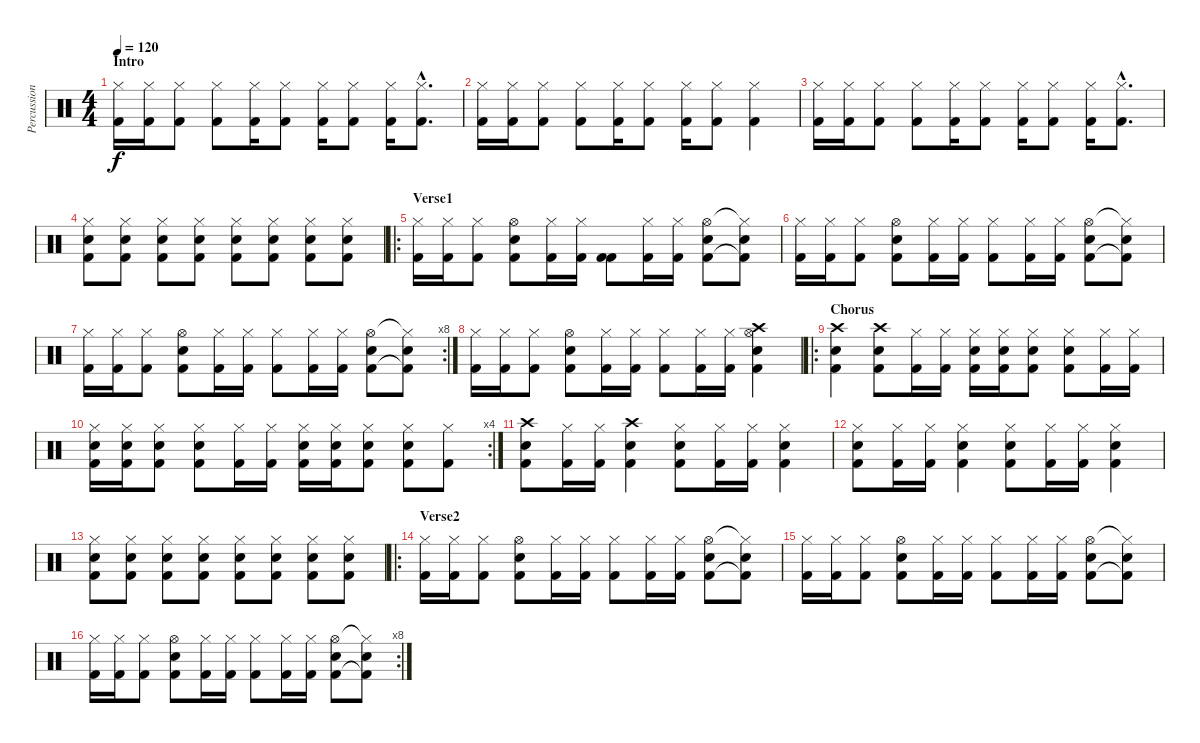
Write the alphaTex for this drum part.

\track ("Percussion" "Percussion") {instrument percussion}
\staff {score}
\articulation defaults
\ts (4 4)
\section ("" "Intro")
\tempo 120
\clef neutral
\ks c
("Hi-Hat (closed)" "Kick (hit) 2").16{dy f} ("Hi-Hat (closed)" "Kick (hit) 2").16 ("Hi-Hat (closed)" "Kick (hit) 2").8 ("Hi-Hat (closed)" "Kick (hit) 2").8 ("Hi-Hat (closed)" "Kick (hit) 2").16 ("Hi-Hat (closed)" "Kick (hit) 2").8 ("Hi-Hat (closed)" "Kick (hit) 2").16 ("Hi-Hat (closed)" "Kick (hit) 2").8 ("Hi-Hat (closed)" "Kick (hit) 2").16 ("Hi-Hat (closed)"{hac} "Kick (hit) 2"{hac}).8{d} |
("Hi-Hat (closed)" "Kick (hit) 2").16 ("Hi-Hat (closed)" "Kick (hit) 2").16 ("Hi-Hat (closed)" "Kick (hit) 2").8 ("Hi-Hat (closed)" "Kick (hit) 2").8 ("Hi-Hat (closed)" "Kick (hit) 2").16 ("Hi-Hat (closed)" "Kick (hit) 2").8 ("Hi-Hat (closed)" "Kick (hit) 2").16 ("Hi-Hat (closed)" "Kick (hit) 2").8 ("Hi-Hat (closed)" "Kick (hit) 2").4 |
("Hi-Hat (closed)" "Kick (hit) 2").16 ("Hi-Hat (closed)" "Kick (hit) 2").16 ("Hi-Hat (closed)" "Kick (hit) 2").8 ("Hi-Hat (closed)" "Kick (hit) 2").8 ("Hi-Hat (closed)" "Kick (hit) 2").16 ("Hi-Hat (closed)" "Kick (hit) 2").8 ("Hi-Hat (closed)" "Kick (hit) 2").16 ("Hi-Hat (closed)" "Kick (hit) 2").8 ("Hi-Hat (closed)" "Kick (hit) 2").16 ("Hi-Hat (closed)"{hac} "Kick (hit) 2"{hac}).8{d} |
("Hi-Hat (closed)" "Electric Snare (hit)" "Kick (hit) 2").8 ("Hi-Hat (closed)" "Electric Snare (hit)" "Kick (hit) 2").8 ("Hi-Hat (closed)" "Electric Snare (hit)" "Kick (hit) 2").8 ("Hi-Hat (closed)" "Electric Snare (hit)" "Kick (hit) 2").8 ("Hi-Hat (closed)" "Electric Snare (hit)" "Kick (hit) 2").8 ("Hi-Hat (closed)" "Electric Snare (hit)" "Kick (hit) 2").8 ("Hi-Hat (closed)" "Electric Snare (hit)" "Kick (hit) 2").8 ("Hi-Hat (closed)" "Electric Snare (hit)" "Kick (hit) 2").8 |
\ro
\section ("" "Verse1")
("Hi-Hat (closed)" "Kick (hit) 2").16 ("Hi-Hat (closed)" "Kick (hit) 2").16 ("Hi-Hat (closed)" "Kick (hit) 2").8 ("Hi-Hat (open)" "Kick (hit) 2" "Electric Snare (hit)").8 ("Hi-Hat (closed)" "Kick (hit) 2").16 ("Hi-Hat (closed)" "Kick (hit) 2").16 ("Kick (hit) 2" "Kick (hit) 2").8 ("Hi-Hat (closed)" "Kick (hit) 2").16 ("Hi-Hat (closed)" "Kick (hit) 2").16 ("Hi-Hat (open)" "Kick (hit) 2" "Electric Snare (hit)").8 ("Hi-Hat (closed)"{t} "Kick (hit) 2"{t} "Electric Snare (hit)").8 |
("Hi-Hat (closed)" "Kick (hit) 2").16 ("Hi-Hat (closed)" "Kick (hit) 2").16 ("Hi-Hat (closed)" "Kick (hit) 2").8 ("Hi-Hat (open)" "Kick (hit) 2" "Electric Snare (hit)").8 ("Hi-Hat (closed)" "Kick (hit) 2").16 ("Hi-Hat (closed)" "Kick (hit) 2").16 ("Hi-Hat (closed)" "Kick (hit) 2").8 ("Hi-Hat (closed)" "Kick (hit) 2").16 ("Hi-Hat (closed)" "Kick (hit) 2").16 ("Hi-Hat (open)" "Kick (hit) 2" "Electric Snare (hit)").8 ("Hi-Hat (closed)"{t} "Kick (hit) 2"{t} "Electric Snare (hit)").8 |
\rc 8
("Hi-Hat (closed)" "Kick (hit) 2").16 ("Hi-Hat (closed)" "Kick (hit) 2").16 ("Hi-Hat (closed)" "Kick (hit) 2").8 ("Hi-Hat (open)" "Kick (hit) 2" "Electric Snare (hit)").8 ("Hi-Hat (closed)" "Kick (hit) 2").16 ("Hi-Hat (closed)" "Kick (hit) 2").16 ("Hi-Hat (closed)" "Kick (hit) 2").8 ("Hi-Hat (closed)" "Kick (hit) 2").16 ("Hi-Hat (closed)" "Kick (hit) 2").16 ("Hi-Hat (open)" "Kick (hit) 2" "Electric Snare (hit)").8 ("Hi-Hat (closed)"{t} "Kick (hit) 2"{t} "Electric Snare (hit)").8 |
("Hi-Hat (closed)" "Kick (hit) 2").16 ("Hi-Hat (closed)" "Kick (hit) 2").16 ("Hi-Hat (closed)" "Kick (hit) 2").8 ("Hi-Hat (open)" "Kick (hit) 2" "Electric Snare (hit)").8 ("Hi-Hat (closed)" "Kick (hit) 2").16 ("Hi-Hat (closed)" "Kick (hit) 2").16 ("Hi-Hat (closed)" "Kick (hit) 2").8 ("Hi-Hat (closed)" "Kick (hit) 2").16 ("Hi-Hat (closed)" "Kick (hit) 2").16 ("Hi-Hat (open)" "Kick (hit) 2" "Electric Snare (hit)" "Crash high (hit)").4 |
\ro
\section ("" "Chorus")
("Crash high (hit)" "Electric Snare (hit)" "Kick (hit) 2").4 ("Crash high (hit)" "Electric Snare (hit)" "Kick (hit) 2").8 ("Hi-Hat (closed)" "Kick (hit) 2").16 ("Hi-Hat (closed)" "Kick (hit) 2").16 ("Hi-Hat (closed)" "Kick (hit) 2" "Electric Snare (hit)").16 ("Hi-Hat (closed)" "Kick (hit) 2" "Electric Snare (hit)").16 ("Hi-Hat (closed)" "Kick (hit) 2" "Electric Snare (hit)").8 ("Hi-Hat (closed)" "Kick (hit) 2" "Electric Snare (hit)").8 ("Hi-Hat (closed)" "Kick (hit) 2").16 ("Hi-Hat (closed)" "Kick (hit) 2").16 |
\rc 4
("Hi-Hat (closed)" "Kick (hit) 2" "Electric Snare (hit)").16 ("Hi-Hat (closed)" "Kick (hit) 2" "Electric Snare (hit)").16 ("Hi-Hat (closed)" "Kick (hit) 2" "Electric Snare (hit)").8 ("Hi-Hat (closed)" "Kick (hit) 2" "Electric Snare (hit)").8 ("Hi-Hat (closed)" "Kick (hit) 2").16 ("Hi-Hat (closed)" "Kick (hit) 2").16 ("Hi-Hat (closed)" "Kick (hit) 2" "Electric Snare (hit)").16 ("Hi-Hat (closed)" "Kick (hit) 2" "Electric Snare (hit)").16 ("Hi-Hat (closed)" "Kick (hit) 2" "Electric Snare (hit)").8 ("Hi-Hat (closed)" "Kick (hit) 2" "Electric Snare (hit)").8 ("Hi-Hat (closed)" "Kick (hit) 2").8 |
("Crash high (hit)" "Electric Snare (hit)" "Kick (hit) 2").8 ("Kick (hit) 2" "Hi-Hat (closed)").16 ("Kick (hit) 2" "Hi-Hat (closed)").16 ("Crash high (hit)" "Electric Snare (hit)" "Kick (hit) 2").4 ("Hi-Hat (closed)" "Kick (hit) 2" "Electric Snare (hit)").8 ("Hi-Hat (closed)" "Kick (hit) 2").16 ("Hi-Hat (closed)" "Kick (hit) 2").16 ("Hi-Hat (closed)" "Kick (hit) 2" "Electric Snare (hit)").4 |
("Hi-Hat (closed)" "Kick (hit) 2" "Electric Snare (hit)").8 ("Hi-Hat (closed)" "Kick (hit) 2").16 ("Hi-Hat (closed)" "Kick (hit) 2").16 ("Hi-Hat (closed)" "Kick (hit) 2" "Electric Snare (hit)").4 ("Hi-Hat (closed)" "Kick (hit) 2" "Electric Snare (hit)").8 ("Hi-Hat (closed)" "Kick (hit) 2").16 ("Hi-Hat (closed)" "Kick (hit) 2").16 ("Hi-Hat (closed)" "Kick (hit) 2" "Electric Snare (hit)").4 |
("Hi-Hat (closed)" "Electric Snare (hit)" "Kick (hit) 2").8 ("Hi-Hat (closed)" "Electric Snare (hit)" "Kick (hit) 2").8 ("Hi-Hat (closed)" "Electric Snare (hit)" "Kick (hit) 2").8 ("Hi-Hat (closed)" "Electric Snare (hit)" "Kick (hit) 2").8 ("Hi-Hat (closed)" "Electric Snare (hit)" "Kick (hit) 2").8 ("Hi-Hat (closed)" "Electric Snare (hit)" "Kick (hit) 2").8 ("Hi-Hat (closed)" "Electric Snare (hit)" "Kick (hit) 2").8 ("Hi-Hat (closed)" "Electric Snare (hit)" "Kick (hit) 2").8 |
\ro
\section ("" "Verse2")
("Hi-Hat (closed)" "Kick (hit) 2").16 ("Hi-Hat (closed)" "Kick (hit) 2").16 ("Hi-Hat (closed)" "Kick (hit) 2").8 ("Hi-Hat (open)" "Kick (hit) 2" "Electric Snare (hit)").8 ("Hi-Hat (closed)" "Kick (hit) 2").16 ("Hi-Hat (closed)" "Kick (hit) 2").16 ("Hi-Hat (closed)" "Kick (hit) 2").8 ("Hi-Hat (closed)" "Kick (hit) 2").16 ("Hi-Hat (closed)" "Kick (hit) 2").16 ("Hi-Hat (open)" "Kick (hit) 2" "Electric Snare (hit)").8 ("Hi-Hat (closed)"{t} "Kick (hit) 2"{t} "Electric Snare (hit)").8 |
("Hi-Hat (closed)" "Kick (hit) 2").16 ("Hi-Hat (closed)" "Kick (hit) 2").16 ("Hi-Hat (closed)" "Kick (hit) 2").8 ("Hi-Hat (open)" "Kick (hit) 2" "Electric Snare (hit)").8 ("Hi-Hat (closed)" "Kick (hit) 2").16 ("Hi-Hat (closed)" "Kick (hit) 2").16 ("Hi-Hat (closed)" "Kick (hit) 2").8 ("Hi-Hat (closed)" "Kick (hit) 2").16 ("Hi-Hat (closed)" "Kick (hit) 2").16 ("Hi-Hat (open)" "Kick (hit) 2" "Electric Snare (hit)").8 ("Hi-Hat (closed)"{t} "Kick (hit) 2"{t} "Electric Snare (hit)").8 |
\rc 8
("Hi-Hat (closed)" "Kick (hit) 2").16 ("Hi-Hat (closed)" "Kick (hit) 2").16 ("Hi-Hat (closed)" "Kick (hit) 2").8 ("Hi-Hat (open)" "Kick (hit) 2" "Electric Snare (hit)").8 ("Hi-Hat (closed)" "Kick (hit) 2").16 ("Hi-Hat (closed)" "Kick (hit) 2").16 ("Hi-Hat (closed)" "Kick (hit) 2").8 ("Hi-Hat (closed)" "Kick (hit) 2").16 ("Hi-Hat (closed)" "Kick (hit) 2").16 ("Hi-Hat (open)" "Kick (hit) 2" "Electric Snare (hit)").8 ("Hi-Hat (closed)"{t} "Kick (hit) 2"{t} "Electric Snare (hit)").8
